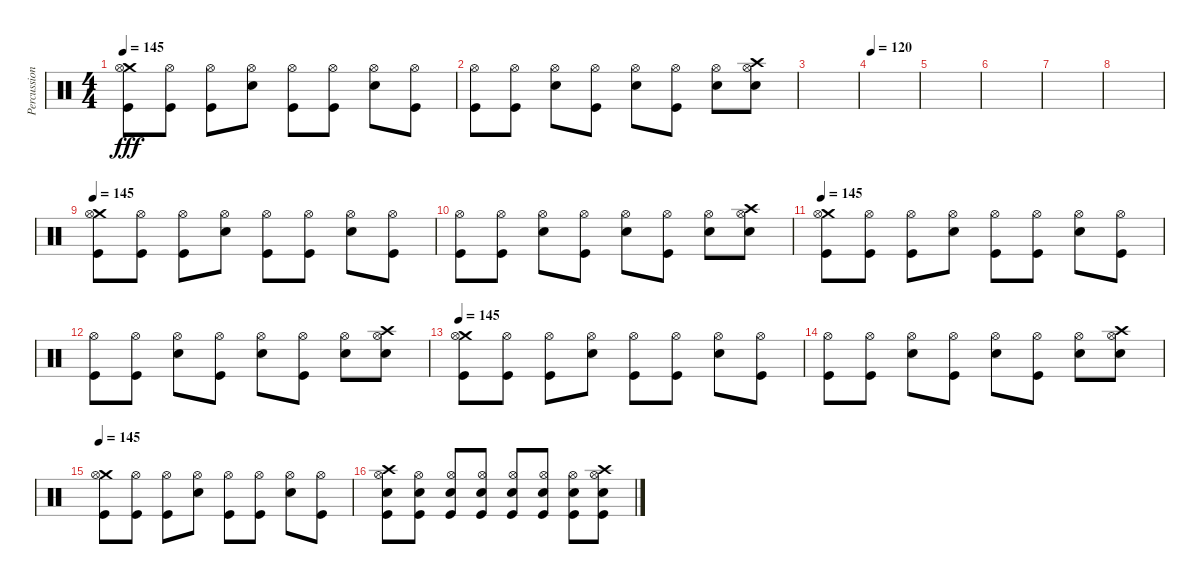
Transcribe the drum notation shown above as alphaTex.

\track ("Percussion" "Percussion") {instrument percussion}
\staff {score}
\articulation defaults
\ts (4 4)
\tempo 145
\clef neutral
\ks c
("Crash medium (hit)" "Kick (hit)" "Hi-Hat (open)").8{dy fff} ("Kick (hit)" "Hi-Hat (open)").8 ("Kick (hit)" "Hi-Hat (open)").8 ("Snare (hit) 2" "Hi-Hat (open)").8 ("Kick (hit)" "Hi-Hat (open)").8 ("Kick (hit)" "Hi-Hat (open)").8 ("Snare (hit) 2" "Hi-Hat (open)").8 ("Kick (hit)" "Hi-Hat (open)").8 |
("Kick (hit)" "Hi-Hat (open)").8 ("Kick (hit)" "Hi-Hat (open)").8 ("Snare (hit) 2" "Hi-Hat (open)").8 ("Kick (hit)" "Hi-Hat (open)").8 ("Snare (hit) 2" "Hi-Hat (open)").8 ("Kick (hit)" "Hi-Hat (open)").8 ("Snare (hit) 2" "Hi-Hat (open)").8 ("Crash high (hit)" "Snare (hit) 2" "Hi-Hat (open)").8 |
|
\tempo 120
|
|
|
|
|
\tempo 145
("Crash medium (hit)" "Kick (hit)" "Hi-Hat (open)").8 ("Kick (hit)" "Hi-Hat (open)").8 ("Kick (hit)" "Hi-Hat (open)").8 ("Snare (hit) 2" "Hi-Hat (open)").8 ("Kick (hit)" "Hi-Hat (open)").8 ("Kick (hit)" "Hi-Hat (open)").8 ("Snare (hit) 2" "Hi-Hat (open)").8 ("Kick (hit)" "Hi-Hat (open)").8 |
("Kick (hit)" "Hi-Hat (open)").8 ("Kick (hit)" "Hi-Hat (open)").8 ("Snare (hit) 2" "Hi-Hat (open)").8 ("Kick (hit)" "Hi-Hat (open)").8 ("Snare (hit) 2" "Hi-Hat (open)").8 ("Kick (hit)" "Hi-Hat (open)").8 ("Snare (hit) 2" "Hi-Hat (open)").8 ("Crash high (hit)" "Snare (hit) 2" "Hi-Hat (open)").8 |
\tempo 145
("Crash medium (hit)" "Kick (hit)" "Hi-Hat (open)").8 ("Kick (hit)" "Hi-Hat (open)").8 ("Kick (hit)" "Hi-Hat (open)").8 ("Snare (hit) 2" "Hi-Hat (open)").8 ("Kick (hit)" "Hi-Hat (open)").8 ("Kick (hit)" "Hi-Hat (open)").8 ("Snare (hit) 2" "Hi-Hat (open)").8 ("Kick (hit)" "Hi-Hat (open)").8 |
("Kick (hit)" "Hi-Hat (open)").8 ("Kick (hit)" "Hi-Hat (open)").8 ("Snare (hit) 2" "Hi-Hat (open)").8 ("Kick (hit)" "Hi-Hat (open)").8 ("Snare (hit) 2" "Hi-Hat (open)").8 ("Kick (hit)" "Hi-Hat (open)").8 ("Snare (hit) 2" "Hi-Hat (open)").8 ("Crash high (hit)" "Snare (hit) 2" "Hi-Hat (open)").8 |
\tempo 145
("Crash medium (hit)" "Kick (hit)" "Hi-Hat (open)").8 ("Kick (hit)" "Hi-Hat (open)").8 ("Kick (hit)" "Hi-Hat (open)").8 ("Snare (hit) 2" "Hi-Hat (open)").8 ("Kick (hit)" "Hi-Hat (open)").8 ("Kick (hit)" "Hi-Hat (open)").8 ("Snare (hit) 2" "Hi-Hat (open)").8 ("Kick (hit)" "Hi-Hat (open)").8 |
("Kick (hit)" "Hi-Hat (open)").8 ("Kick (hit)" "Hi-Hat (open)").8 ("Snare (hit) 2" "Hi-Hat (open)").8 ("Kick (hit)" "Hi-Hat (open)").8 ("Snare (hit) 2" "Hi-Hat (open)").8 ("Kick (hit)" "Hi-Hat (open)").8 ("Snare (hit) 2" "Hi-Hat (open)").8 ("Crash high (hit)" "Snare (hit) 2" "Hi-Hat (open)").8 |
\tempo 145
("Crash medium (hit)" "Kick (hit)" "Hi-Hat (open)").8 ("Kick (hit)" "Hi-Hat (open)").8 ("Kick (hit)" "Hi-Hat (open)").8 ("Snare (hit) 2" "Hi-Hat (open)").8 ("Kick (hit)" "Hi-Hat (open)").8 ("Kick (hit)" "Hi-Hat (open)").8 ("Snare (hit) 2" "Hi-Hat (open)").8 ("Kick (hit)" "Hi-Hat (open)").8 |
("Crash high (hit)" "Snare (hit) 2" "Kick (hit)" "Hi-Hat (open)").8 ("Snare (hit) 2" "Kick (hit)" "Hi-Hat (open)").8 ("Snare (hit) 2" "Kick (hit)" "Hi-Hat (open)").8 ("Snare (hit) 2" "Kick (hit)" "Hi-Hat (open)").8 ("Snare (hit) 2" "Kick (hit)" "Hi-Hat (open)").8 ("Snare (hit) 2" "Kick (hit)" "Hi-Hat (open)").8 ("Snare (hit) 2" "Kick (hit)" "Hi-Hat (open)").8 ("Crash high (hit)" "Snare (hit) 2" "Kick (hit)" "Hi-Hat (open)").8
